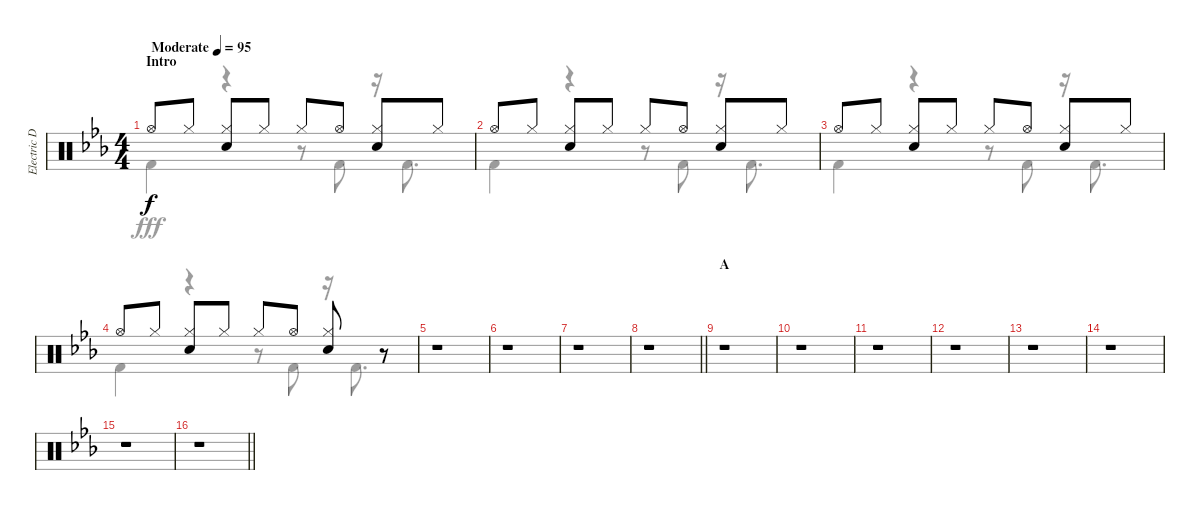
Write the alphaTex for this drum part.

\track ("Electric Drums" "Electric D") {instrument percussion}
\staff {score}
\articulation defaults
\voice
\ts (4 4)
\section ("" "Intro")
\tempo (95 "Moderate")
\clef neutral
\ks cminor "Hi-Hat (open)".8{dy f} "Hi-Hat (closed)".8
("Hi-Hat (closed)" "Electric Snare (hit)").8 "Hi-Hat (closed)".8 "Hi-Hat (closed)".8 "Hi-Hat (open)".8 ("Hi-Hat (closed)" "Electric Snare (hit)").8 "Hi-Hat (closed)".8 |
"Hi-Hat (open)".8 "Hi-Hat (closed)".8 ("Hi-Hat (closed)" "Electric Snare (hit)").8 "Hi-Hat (closed)".8 "Hi-Hat (closed)".8 "Hi-Hat (open)".8 ("Hi-Hat (closed)" "Electric Snare (hit)").8 "Hi-Hat (closed)".8 |
"Hi-Hat (open)".8 "Hi-Hat (closed)".8 ("Hi-Hat (closed)" "Electric Snare (hit)").8 "Hi-Hat (closed)".8 "Hi-Hat (closed)".8 "Hi-Hat (open)".8 ("Hi-Hat (closed)" "Electric Snare (hit)").8 "Hi-Hat (closed)".8 |
"Hi-Hat (open)".8 "Hi-Hat (closed)".8 ("Hi-Hat (closed)" "Electric Snare (hit)").8 "Hi-Hat (closed)".8 "Hi-Hat (closed)".8 "Hi-Hat (open)".8 ("Hi-Hat (closed)" "Electric Snare (hit)").8 r.8 |
r.1 |
r.1 |
r.1 |
\barLineRight lightlight
r.1 |
\section ("" "A")
r.1 |
r.1 |
r.1 |
r.1 |
r.1 |
r.1 |
r.1 |
\barLineRight lightlight
r.1
\voice
\clef neutral
\ottava regular
\simile none
\ks cminor "Kick (hit) 2".4{dy fff}
r.4 r.8 "Kick (hit) 2".8 r.16 "Kick (hit) 2".8{d} |
"Kick (hit) 2".4 r.4 r.8 "Kick (hit) 2".8 r.16 "Kick (hit) 2".8{d} |
"Kick (hit) 2".4 r.4 r.8 "Kick (hit) 2".8 r.16 "Kick (hit) 2".8{d} |
"Kick (hit) 2".4 r.4 r.8 "Kick (hit) 2".8 r.16 "Kick (hit) 2".8{d} |
r.1 |
r.1 |
r.1 |
\barLineRight lightlight
r.1 |
r.1 |
r.1 |
r.1 |
r.1 |
r.1 |
r.1 |
r.1 |
\barLineRight lightlight
r.1
